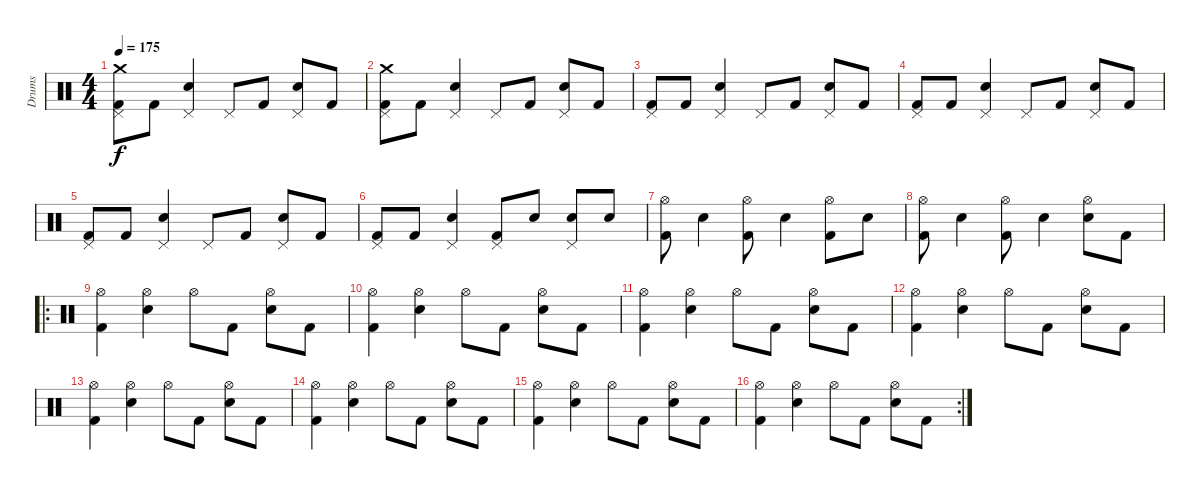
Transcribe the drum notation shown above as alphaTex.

\track ("Drums" "Drums") {instrument percussion}
\staff {score}
\articulation defaults
\ts (4 4)
\tempo 175
\clef neutral
\ks c
("Crash medium (hit)" "Pedal Hi-Hat (hit)" "Kick (hit) 2").8{dy f} "Kick (hit) 2".8 ("Pedal Hi-Hat (hit)" "Snare (hit) 2").4 "Pedal Hi-Hat (hit)".8 "Kick (hit) 2".8 ("Pedal Hi-Hat (hit)" "Snare (hit) 2").8 "Kick (hit) 2".8 |
("Crash medium (hit)" "Pedal Hi-Hat (hit)" "Kick (hit) 2").8 "Kick (hit) 2".8 ("Pedal Hi-Hat (hit)" "Snare (hit) 2").4 "Pedal Hi-Hat (hit)".8 "Kick (hit) 2".8 ("Pedal Hi-Hat (hit)" "Snare (hit) 2").8 "Kick (hit) 2".8 |
("Pedal Hi-Hat (hit)" "Kick (hit) 2").8 "Kick (hit) 2".8 ("Pedal Hi-Hat (hit)" "Snare (hit) 2").4 "Pedal Hi-Hat (hit)".8 "Kick (hit) 2".8 ("Pedal Hi-Hat (hit)" "Snare (hit) 2").8 "Kick (hit) 2".8 |
("Pedal Hi-Hat (hit)" "Kick (hit) 2").8 "Kick (hit) 2".8 ("Pedal Hi-Hat (hit)" "Snare (hit) 2").4 "Pedal Hi-Hat (hit)".8 "Kick (hit) 2".8 ("Pedal Hi-Hat (hit)" "Snare (hit) 2").8 "Kick (hit) 2".8 |
("Pedal Hi-Hat (hit)" "Kick (hit) 2").8 "Kick (hit) 2".8 ("Pedal Hi-Hat (hit)" "Snare (hit) 2").4 "Pedal Hi-Hat (hit)".8 "Kick (hit) 2".8 ("Pedal Hi-Hat (hit)" "Snare (hit) 2").8 "Kick (hit) 2".8 |
("Pedal Hi-Hat (hit)" "Kick (hit) 2").8 "Kick (hit) 2".8 ("Pedal Hi-Hat (hit)" "Snare (hit) 2").4 ("Pedal Hi-Hat (hit)" "Kick (hit) 2").8 "Snare (hit) 2".8 ("Pedal Hi-Hat (hit)" "Snare (hit) 2").8 "Snare (hit) 2".8 |
("Hi-Hat (open)" "Kick (hit) 2").8 "Snare (hit) 2".4 ("Hi-Hat (open)" "Kick (hit) 2").8 "Snare (hit) 2".4 ("Hi-Hat (open)" "Kick (hit) 2").8 "Snare (hit) 2".8 |
("Hi-Hat (open)" "Kick (hit) 2").8 "Snare (hit) 2".4 ("Hi-Hat (open)" "Kick (hit) 2").8 "Snare (hit) 2".4 ("Hi-Hat (open)" "Snare (hit) 2").8 "Kick (hit) 2".8 |
\ro
("Hi-Hat (open)" "Kick (hit) 2").4 ("Hi-Hat (open)" "Snare (hit) 2").4 "Hi-Hat (open)".8 "Kick (hit) 2".8 ("Hi-Hat (open)" "Snare (hit) 2").8 "Kick (hit) 2".8 |
("Hi-Hat (open)" "Kick (hit) 2").4 ("Hi-Hat (open)" "Snare (hit) 2").4 "Hi-Hat (open)".8 "Kick (hit) 2".8 ("Hi-Hat (open)" "Snare (hit) 2").8 "Kick (hit) 2".8 |
("Hi-Hat (open)" "Kick (hit) 2").4 ("Hi-Hat (open)" "Snare (hit) 2").4 "Hi-Hat (open)".8 "Kick (hit) 2".8 ("Hi-Hat (open)" "Snare (hit) 2").8 "Kick (hit) 2".8 |
("Hi-Hat (open)" "Kick (hit) 2").4 ("Hi-Hat (open)" "Snare (hit) 2").4 "Hi-Hat (open)".8 "Kick (hit) 2".8 ("Hi-Hat (open)" "Snare (hit) 2").8 "Kick (hit) 2".8 |
("Hi-Hat (open)" "Kick (hit) 2").4 ("Hi-Hat (open)" "Snare (hit) 2").4 "Hi-Hat (open)".8 "Kick (hit) 2".8 ("Hi-Hat (open)" "Snare (hit) 2").8 "Kick (hit) 2".8 |
("Hi-Hat (open)" "Kick (hit) 2").4 ("Hi-Hat (open)" "Snare (hit) 2").4 "Hi-Hat (open)".8 "Kick (hit) 2".8 ("Hi-Hat (open)" "Snare (hit) 2").8 "Kick (hit) 2".8 |
("Hi-Hat (open)" "Kick (hit) 2").4 ("Hi-Hat (open)" "Snare (hit) 2").4 "Hi-Hat (open)".8 "Kick (hit) 2".8 ("Hi-Hat (open)" "Snare (hit) 2").8 "Kick (hit) 2".8 |
\rc 2
("Hi-Hat (open)" "Kick (hit) 2").4 ("Hi-Hat (open)" "Snare (hit) 2").4 "Hi-Hat (open)".8 "Kick (hit) 2".8 ("Hi-Hat (open)" "Snare (hit) 2").8 "Kick (hit) 2".8
